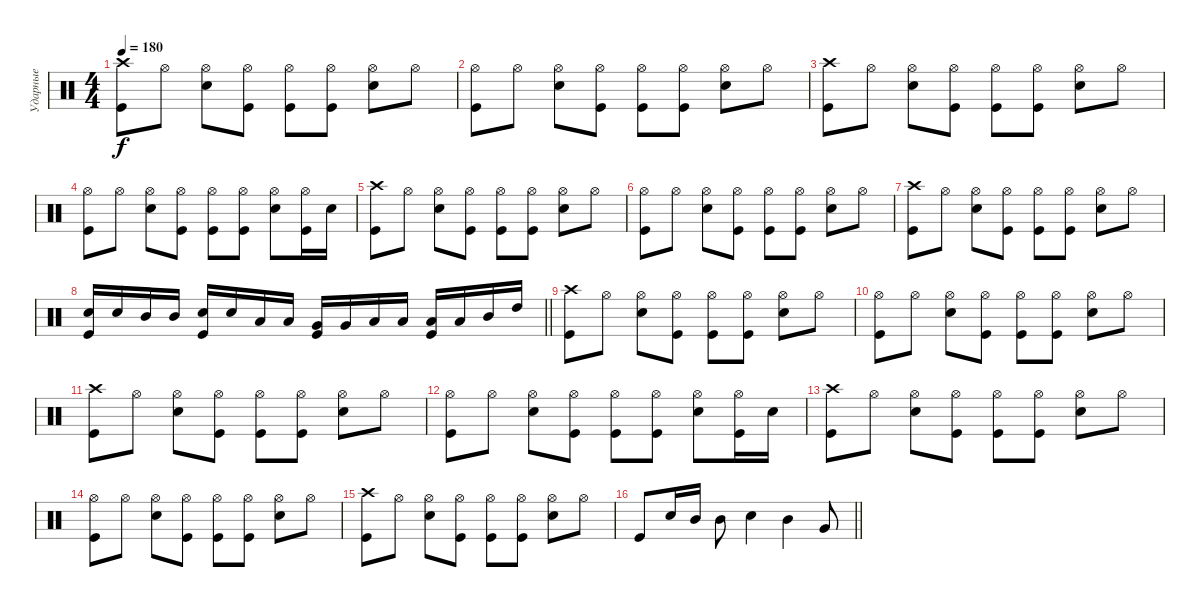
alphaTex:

\track ("Ударные" "Ударные") {instrument percussion}
\staff {score}
\articulation defaults
\ts (4 4)
\tempo 180
\clef neutral
\ks c
("Crash high (hit)" "Kick (hit)").8{dy f} "Hi-Hat (open)".8 ("Hi-Hat (open)" "Snare (hit) 2").8 ("Hi-Hat (open)" "Kick (hit)").8 ("Hi-Hat (open)" "Kick (hit)").8 ("Hi-Hat (open)" "Kick (hit)").8 ("Hi-Hat (open)" "Snare (hit) 2").8 "Hi-Hat (open)".8 |
("Hi-Hat (open)" "Kick (hit)").8 "Hi-Hat (open)".8 ("Hi-Hat (open)" "Snare (hit) 2").8 ("Hi-Hat (open)" "Kick (hit)").8 ("Hi-Hat (open)" "Kick (hit)").8 ("Hi-Hat (open)" "Kick (hit)").8 ("Hi-Hat (open)" "Snare (hit) 2").8 "Hi-Hat (open)".8 |
("Crash high (hit)" "Kick (hit)").8 "Hi-Hat (open)".8 ("Hi-Hat (open)" "Snare (hit) 2").8 ("Hi-Hat (open)" "Kick (hit)").8 ("Hi-Hat (open)" "Kick (hit)").8 ("Hi-Hat (open)" "Kick (hit)").8 ("Hi-Hat (open)" "Snare (hit) 2").8 "Hi-Hat (open)".8 |
("Hi-Hat (open)" "Kick (hit)").8 "Hi-Hat (open)".8 ("Hi-Hat (open)" "Snare (hit) 2").8 ("Hi-Hat (open)" "Kick (hit)").8 ("Hi-Hat (open)" "Kick (hit)").8 ("Hi-Hat (open)" "Kick (hit)").8 ("Hi-Hat (open)" "Snare (hit) 2").8 ("Hi-Hat (open)" "Kick (hit)").16 "Snare (hit) 2".16 |
("Crash high (hit)" "Kick (hit)").8 "Hi-Hat (open)".8 ("Hi-Hat (open)" "Snare (hit) 2").8 ("Hi-Hat (open)" "Kick (hit)").8 ("Hi-Hat (open)" "Kick (hit)").8 ("Hi-Hat (open)" "Kick (hit)").8 ("Hi-Hat (open)" "Snare (hit) 2").8 "Hi-Hat (open)".8 |
("Hi-Hat (open)" "Kick (hit)").8 "Hi-Hat (open)".8 ("Hi-Hat (open)" "Snare (hit) 2").8 ("Hi-Hat (open)" "Kick (hit)").8 ("Hi-Hat (open)" "Kick (hit)").8 ("Hi-Hat (open)" "Kick (hit)").8 ("Hi-Hat (open)" "Snare (hit) 2").8 "Hi-Hat (open)".8 |
("Crash high (hit)" "Kick (hit)").8 "Hi-Hat (open)".8 ("Hi-Hat (open)" "Snare (hit) 2").8 ("Hi-Hat (open)" "Kick (hit)").8 ("Hi-Hat (open)" "Kick (hit)").8 ("Hi-Hat (open)" "Kick (hit)").8 ("Hi-Hat (open)" "Snare (hit) 2").8 "Hi-Hat (open)".8 |
\barLineRight lightlight
("Snare (hit) 2" "Kick (hit)").16 "Snare (hit) 2".16 "Mid Tom (hit)".16 "Mid Tom (hit)".16 ("Snare (hit) 2" "Kick (hit)").16 "Snare (hit) 2".16 "Low Tom (hit)".16 "Low Tom (hit)".16 ("Very Low Tom (hit)" "Kick (hit)").16 "Very Low Tom (hit)".16 "Low Tom (hit)".16 "Low Tom (hit)".16 ("Low Floor Tom (hit)" "Kick (hit)").16 "Low Floor Tom (hit)".16 "Mid Tom (hit)".16 "High Tom (hit)".16 |
("Crash high (hit)" "Kick (hit)").8 "Hi-Hat (open)".8 ("Hi-Hat (open)" "Snare (hit) 2").8 ("Hi-Hat (open)" "Kick (hit)").8 ("Hi-Hat (open)" "Kick (hit)").8 ("Hi-Hat (open)" "Kick (hit)").8 ("Hi-Hat (open)" "Snare (hit) 2").8 "Hi-Hat (open)".8 |
("Hi-Hat (open)" "Kick (hit)").8 "Hi-Hat (open)".8 ("Hi-Hat (open)" "Snare (hit) 2").8 ("Hi-Hat (open)" "Kick (hit)").8 ("Hi-Hat (open)" "Kick (hit)").8 ("Hi-Hat (open)" "Kick (hit)").8 ("Hi-Hat (open)" "Snare (hit) 2").8 "Hi-Hat (open)".8 |
("Crash high (hit)" "Kick (hit)").8 "Hi-Hat (open)".8 ("Hi-Hat (open)" "Snare (hit) 2").8 ("Hi-Hat (open)" "Kick (hit)").8 ("Hi-Hat (open)" "Kick (hit)").8 ("Hi-Hat (open)" "Kick (hit)").8 ("Hi-Hat (open)" "Snare (hit) 2").8 "Hi-Hat (open)".8 |
("Hi-Hat (open)" "Kick (hit)").8 "Hi-Hat (open)".8 ("Hi-Hat (open)" "Snare (hit) 2").8 ("Hi-Hat (open)" "Kick (hit)").8 ("Hi-Hat (open)" "Kick (hit)").8 ("Hi-Hat (open)" "Kick (hit)").8 ("Hi-Hat (open)" "Snare (hit) 2").8 ("Hi-Hat (open)" "Kick (hit)").16 "Snare (hit) 2".16 |
("Crash high (hit)" "Kick (hit)").8 "Hi-Hat (open)".8 ("Hi-Hat (open)" "Snare (hit) 2").8 ("Hi-Hat (open)" "Kick (hit)").8 ("Hi-Hat (open)" "Kick (hit)").8 ("Hi-Hat (open)" "Kick (hit)").8 ("Hi-Hat (open)" "Snare (hit) 2").8 "Hi-Hat (open)".8 |
("Hi-Hat (open)" "Kick (hit)").8 "Hi-Hat (open)".8 ("Hi-Hat (open)" "Snare (hit) 2").8 ("Hi-Hat (open)" "Kick (hit)").8 ("Hi-Hat (open)" "Kick (hit)").8 ("Hi-Hat (open)" "Kick (hit)").8 ("Hi-Hat (open)" "Snare (hit) 2").8 "Hi-Hat (open)".8 |
("Crash high (hit)" "Kick (hit)").8 "Hi-Hat (open)".8 ("Hi-Hat (open)" "Snare (hit) 2").8 ("Hi-Hat (open)" "Kick (hit)").8 ("Hi-Hat (open)" "Kick (hit)").8 ("Hi-Hat (open)" "Kick (hit)").8 ("Hi-Hat (open)" "Snare (hit) 2").8 "Hi-Hat (open)".8 |
\barLineRight lightlight "Kick (hit)".8 "Snare (hit) 2".16 "Mid Tom (hit)".16 "Mid Tom (hit)".8 "Snare (hit) 2".4 "Mid Tom (hit)".4 "Very Low Tom (hit)".8
